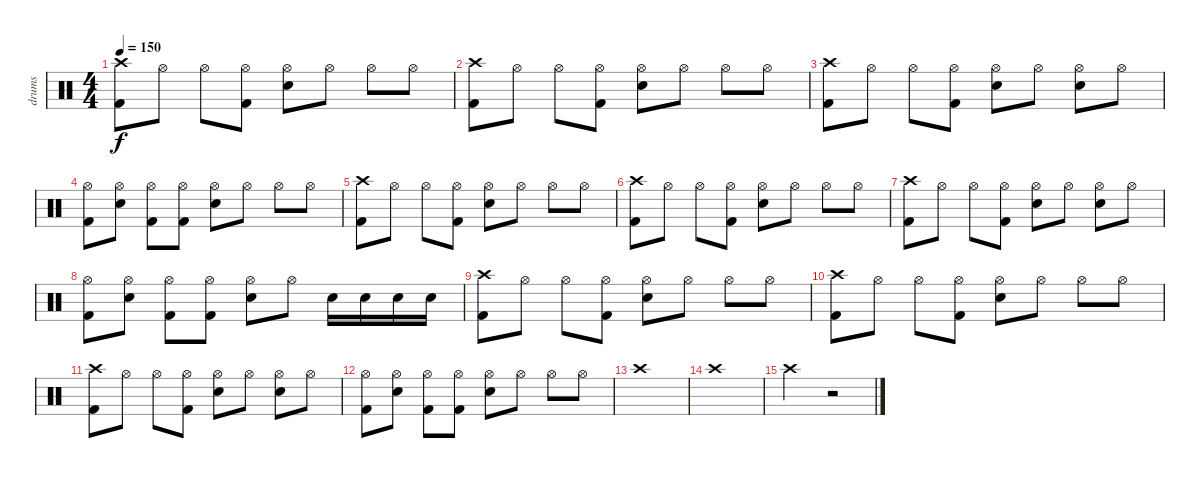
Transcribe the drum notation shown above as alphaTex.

\track ("drums" "drums") {instrument percussion}
\staff {score}
\articulation defaults
\ts (4 4)
\tempo 150
\clef neutral
\ks c
("Crash high (hit)" "Kick (hit) 2").8{dy f} "Hi-Hat (open)".8 "Hi-Hat (open)".8 ("Hi-Hat (open)" "Kick (hit) 2").8 ("Hi-Hat (open)" "Electric Snare (hit)").8 "Hi-Hat (open)".8 "Hi-Hat (open)".8 "Hi-Hat (open)".8 |
("Crash high (hit)" "Kick (hit) 2").8 "Hi-Hat (open)".8 "Hi-Hat (open)".8 ("Hi-Hat (open)" "Kick (hit) 2").8 ("Hi-Hat (open)" "Electric Snare (hit)").8 "Hi-Hat (open)".8 "Hi-Hat (open)".8 "Hi-Hat (open)".8 |
("Crash high (hit)" "Kick (hit) 2").8 "Hi-Hat (open)".8 "Hi-Hat (open)".8 ("Hi-Hat (open)" "Kick (hit) 2").8 ("Hi-Hat (open)" "Electric Snare (hit)").8 "Hi-Hat (open)".8 ("Hi-Hat (open)" "Electric Snare (hit)").8 "Hi-Hat (open)".8 |
("Hi-Hat (open)" "Kick (hit) 2").8 ("Hi-Hat (open)" "Electric Snare (hit)").8 ("Hi-Hat (open)" "Kick (hit) 2").8 ("Hi-Hat (open)" "Kick (hit) 2").8 ("Hi-Hat (open)" "Electric Snare (hit)").8 "Hi-Hat (open)".8 "Hi-Hat (open)".8 "Hi-Hat (open)".8 |
("Crash high (hit)" "Kick (hit) 2").8 "Hi-Hat (open)".8 "Hi-Hat (open)".8 ("Hi-Hat (open)" "Kick (hit) 2").8 ("Hi-Hat (open)" "Electric Snare (hit)").8 "Hi-Hat (open)".8 "Hi-Hat (open)".8 "Hi-Hat (open)".8 |
("Crash high (hit)" "Kick (hit) 2").8 "Hi-Hat (open)".8 "Hi-Hat (open)".8 ("Hi-Hat (open)" "Kick (hit) 2").8 ("Hi-Hat (open)" "Electric Snare (hit)").8 "Hi-Hat (open)".8 "Hi-Hat (open)".8 "Hi-Hat (open)".8 |
("Crash high (hit)" "Kick (hit) 2").8 "Hi-Hat (open)".8 "Hi-Hat (open)".8 ("Hi-Hat (open)" "Kick (hit) 2").8 ("Hi-Hat (open)" "Electric Snare (hit)").8 "Hi-Hat (open)".8 ("Hi-Hat (open)" "Electric Snare (hit)").8 "Hi-Hat (open)".8 |
("Hi-Hat (open)" "Kick (hit) 2").8 ("Hi-Hat (open)" "Electric Snare (hit)").8 ("Hi-Hat (open)" "Kick (hit) 2").8 ("Hi-Hat (open)" "Kick (hit) 2").8 ("Hi-Hat (open)" "Electric Snare (hit)").8 "Hi-Hat (open)".8 "Electric Snare (hit)".16 "Electric Snare (hit)".16 "Electric Snare (hit)".16 "Electric Snare (hit)".16 |
("Crash high (hit)" "Kick (hit) 2").8 "Hi-Hat (open)".8 "Hi-Hat (open)".8 ("Hi-Hat (open)" "Kick (hit) 2").8 ("Hi-Hat (open)" "Electric Snare (hit)").8 "Hi-Hat (open)".8 "Hi-Hat (open)".8 "Hi-Hat (open)".8 |
("Crash high (hit)" "Kick (hit) 2").8 "Hi-Hat (open)".8 "Hi-Hat (open)".8 ("Hi-Hat (open)" "Kick (hit) 2").8 ("Hi-Hat (open)" "Electric Snare (hit)").8 "Hi-Hat (open)".8 "Hi-Hat (open)".8 "Hi-Hat (open)".8 |
("Crash high (hit)" "Kick (hit) 2").8 "Hi-Hat (open)".8 "Hi-Hat (open)".8 ("Hi-Hat (open)" "Kick (hit) 2").8 ("Hi-Hat (open)" "Electric Snare (hit)").8 "Hi-Hat (open)".8 ("Hi-Hat (open)" "Electric Snare (hit)").8 "Hi-Hat (open)".8 |
("Hi-Hat (open)" "Kick (hit) 2").8 ("Hi-Hat (open)" "Electric Snare (hit)").8 ("Hi-Hat (open)" "Kick (hit) 2").8 ("Hi-Hat (open)" "Kick (hit) 2").8 ("Hi-Hat (open)" "Electric Snare (hit)").8 "Hi-Hat (open)".8 "Hi-Hat (open)".8 "Hi-Hat (open)".8 |
"Crash high (hit)".1 |
"Crash high (hit)".1 |
"Crash high (hit)".2 r.2
